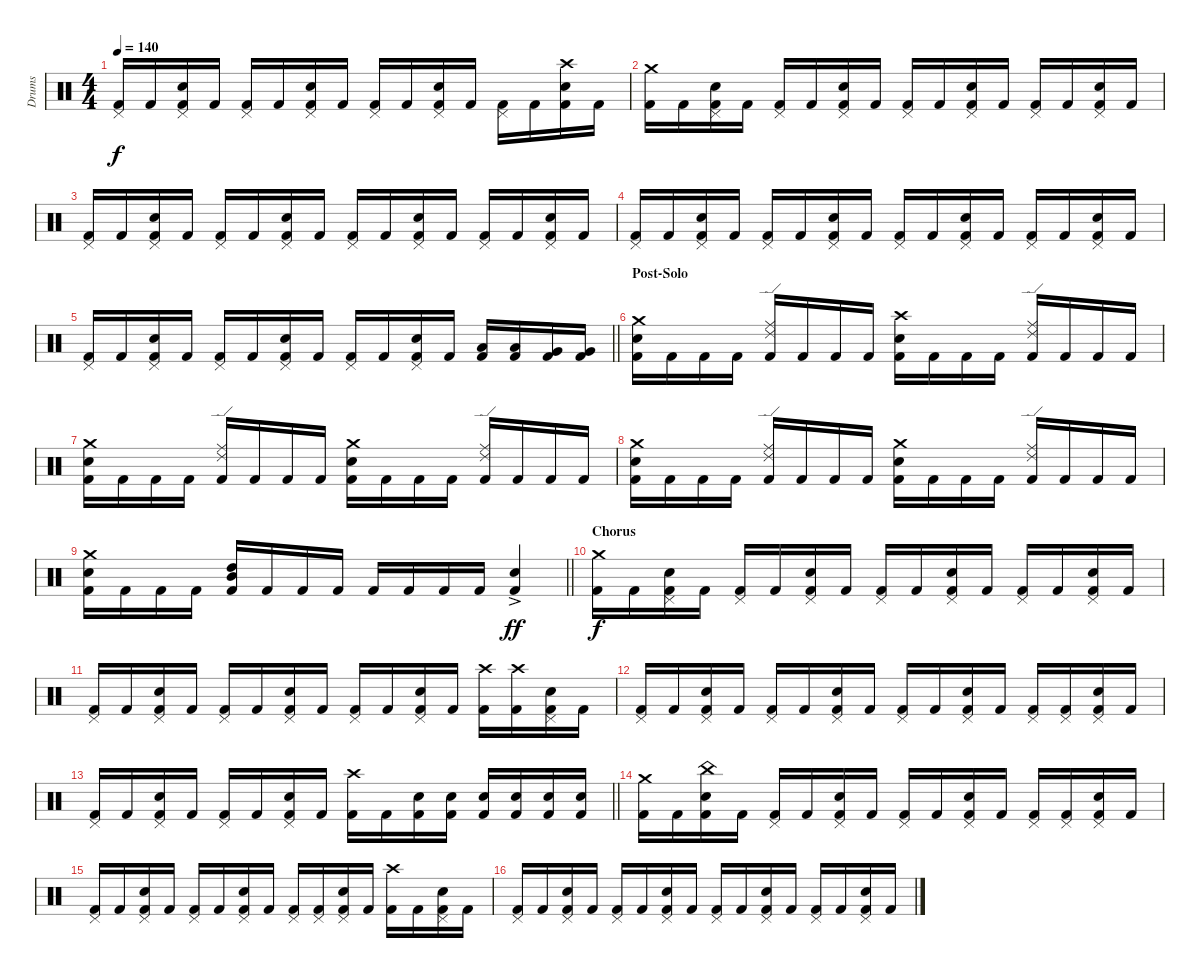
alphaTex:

\track ("Drums" "Drums") {instrument percussion}
\staff {score}
\articulation defaults
\ts (4 4)
\tempo 140
\clef neutral
\ks c
("Kick (hit) 2" "Pedal Hi-Hat (hit)").16{dy f} "Kick (hit) 2".16 ("Kick (hit) 2" "Snare (hit) 2" "Pedal Hi-Hat (hit)").16 "Kick (hit) 2".16 ("Kick (hit) 2" "Pedal Hi-Hat (hit)").16 "Kick (hit) 2".16 ("Kick (hit) 2" "Snare (hit) 2" "Pedal Hi-Hat (hit)").16 "Kick (hit) 2".16 ("Kick (hit) 2" "Pedal Hi-Hat (hit)").16 "Kick (hit) 2".16 ("Kick (hit) 2" "Snare (hit) 2" "Pedal Hi-Hat (hit)").16 "Kick (hit) 2".16 ("Kick (hit) 2" "Pedal Hi-Hat (hit)").16 "Kick (hit) 2".16 ("Kick (hit) 2" "Snare (hit) 2" "Crash high (hit)").16 "Kick (hit) 2".16 |
("Kick (hit) 2" "Crash medium (hit)").16 "Kick (hit) 2".16 ("Kick (hit) 2" "Snare (hit) 2" "Pedal Hi-Hat (hit)").16 "Kick (hit) 2".16 ("Kick (hit) 2" "Pedal Hi-Hat (hit)").16 "Kick (hit) 2".16 ("Kick (hit) 2" "Snare (hit) 2" "Pedal Hi-Hat (hit)").16 "Kick (hit) 2".16 ("Kick (hit) 2" "Pedal Hi-Hat (hit)").16 "Kick (hit) 2".16 ("Kick (hit) 2" "Snare (hit) 2" "Pedal Hi-Hat (hit)").16 "Kick (hit) 2".16 ("Kick (hit) 2" "Pedal Hi-Hat (hit)").16 "Kick (hit) 2".16 ("Kick (hit) 2" "Snare (hit) 2" "Pedal Hi-Hat (hit)").16 "Kick (hit) 2".16 |
("Kick (hit) 2" "Pedal Hi-Hat (hit)").16 "Kick (hit) 2".16 ("Kick (hit) 2" "Snare (hit) 2" "Pedal Hi-Hat (hit)").16 "Kick (hit) 2".16 ("Kick (hit) 2" "Pedal Hi-Hat (hit)").16 "Kick (hit) 2".16 ("Kick (hit) 2" "Snare (hit) 2" "Pedal Hi-Hat (hit)").16 "Kick (hit) 2".16 ("Kick (hit) 2" "Pedal Hi-Hat (hit)").16 "Kick (hit) 2".16 ("Kick (hit) 2" "Snare (hit) 2" "Pedal Hi-Hat (hit)").16 "Kick (hit) 2".16 ("Kick (hit) 2" "Pedal Hi-Hat (hit)").16 "Kick (hit) 2".16 ("Kick (hit) 2" "Snare (hit) 2" "Pedal Hi-Hat (hit)").16 "Kick (hit) 2".16 |
("Kick (hit) 2" "Pedal Hi-Hat (hit)").16 "Kick (hit) 2".16 ("Kick (hit) 2" "Snare (hit) 2" "Pedal Hi-Hat (hit)").16 "Kick (hit) 2".16 ("Kick (hit) 2" "Pedal Hi-Hat (hit)").16 "Kick (hit) 2".16 ("Kick (hit) 2" "Snare (hit) 2" "Pedal Hi-Hat (hit)").16 "Kick (hit) 2".16 ("Kick (hit) 2" "Pedal Hi-Hat (hit)").16 "Kick (hit) 2".16 ("Kick (hit) 2" "Snare (hit) 2" "Pedal Hi-Hat (hit)").16 "Kick (hit) 2".16 ("Kick (hit) 2" "Pedal Hi-Hat (hit)").16 "Kick (hit) 2".16 ("Kick (hit) 2" "Snare (hit) 2" "Pedal Hi-Hat (hit)").16 "Kick (hit) 2".16 |
\barLineRight lightlight
("Kick (hit) 2" "Pedal Hi-Hat (hit)").16 "Kick (hit) 2".16 ("Kick (hit) 2" "Snare (hit) 2" "Pedal Hi-Hat (hit)").16 "Kick (hit) 2".16 ("Kick (hit) 2" "Pedal Hi-Hat (hit)").16 "Kick (hit) 2".16 ("Kick (hit) 2" "Snare (hit) 2" "Pedal Hi-Hat (hit)").16 "Kick (hit) 2".16 ("Kick (hit) 2" "Pedal Hi-Hat (hit)").16 "Kick (hit) 2".16 ("Kick (hit) 2" "Snare (hit) 2" "Pedal Hi-Hat (hit)").16 "Kick (hit) 2".16 ("Kick (hit) 2" "Low Tom (hit)").16 ("Kick (hit) 2" "Low Tom (hit)").16 ("Kick (hit) 2" "Very Low Tom (hit)").16 ("Kick (hit) 2" "Very Low Tom (hit)").16 |
\section ("" "Post-Solo")
("Kick (hit) 2" "Snare (hit) 2" "Crash medium (hit)").16 "Kick (hit) 2".16 "Kick (hit) 2".16 "Kick (hit) 2".16 ("Kick (hit) 2" "Ride (middle)" "Ride (edge) 2").16 "Kick (hit) 2".16 "Kick (hit) 2".16 "Kick (hit) 2".16 ("Kick (hit) 2" "Snare (hit) 2" "Crash high (hit)").16 "Kick (hit) 2".16 "Kick (hit) 2".16 "Kick (hit) 2".16 ("Kick (hit) 2" "Ride (middle)" "Ride (edge) 2").16 "Kick (hit) 2".16 "Kick (hit) 2".16 "Kick (hit) 2".16 |
("Kick (hit) 2" "Snare (hit) 2" "Crash medium (hit)").16 "Kick (hit) 2".16 "Kick (hit) 2".16 "Kick (hit) 2".16 ("Kick (hit) 2" "Ride (middle)" "Ride (edge) 2").16 "Kick (hit) 2".16 "Kick (hit) 2".16 "Kick (hit) 2".16 ("Kick (hit) 2" "Snare (hit) 2" "Crash medium (hit)").16 "Kick (hit) 2".16 "Kick (hit) 2".16 "Kick (hit) 2".16 ("Kick (hit) 2" "Ride (middle)" "Ride (edge) 2").16 "Kick (hit) 2".16 "Kick (hit) 2".16 "Kick (hit) 2".16 |
("Kick (hit) 2" "Snare (hit) 2" "Crash medium (hit)").16 "Kick (hit) 2".16 "Kick (hit) 2".16 "Kick (hit) 2".16 ("Kick (hit) 2" "Ride (middle)" "Ride (edge) 2").16 "Kick (hit) 2".16 "Kick (hit) 2".16 "Kick (hit) 2".16 ("Kick (hit) 2" "Snare (hit) 2" "Crash medium (hit)").16 "Kick (hit) 2".16 "Kick (hit) 2".16 "Kick (hit) 2".16 ("Kick (hit) 2" "Ride (middle)" "Ride (edge) 2").16 "Kick (hit) 2".16 "Kick (hit) 2".16 "Kick (hit) 2".16 |
\barLineRight lightlight
("Kick (hit) 2" "Snare (hit) 2" "Crash medium (hit)").16 "Kick (hit) 2".16 "Kick (hit) 2".16 "Kick (hit) 2".16 ("Kick (hit) 2" "High Tom (hit)" "Mid Tom (hit)").16 "Kick (hit) 2".16 "Kick (hit) 2".16 "Kick (hit) 2".16 "Kick (hit) 2".16 "Kick (hit) 2".16 "Kick (hit) 2".16 "Kick (hit) 2".16 ("Kick (hit) 2" "Snare (hit) 2"{ac}).4{dy ff} |
\section ("" "Chorus")
("Kick (hit) 2" "Crash medium (hit)").16{dy f} "Kick (hit) 2".16 ("Kick (hit) 2" "Snare (hit) 2" "Pedal Hi-Hat (hit)").16 "Kick (hit) 2".16 ("Kick (hit) 2" "Pedal Hi-Hat (hit)").16 "Kick (hit) 2".16 ("Kick (hit) 2" "Snare (hit) 2" "Pedal Hi-Hat (hit)").16 "Kick (hit) 2".16 ("Kick (hit) 2" "Pedal Hi-Hat (hit)").16 "Kick (hit) 2".16 ("Kick (hit) 2" "Snare (hit) 2" "Pedal Hi-Hat (hit)").16 "Kick (hit) 2".16 ("Kick (hit) 2" "Pedal Hi-Hat (hit)").16 "Kick (hit) 2".16 ("Kick (hit) 2" "Snare (hit) 2" "Pedal Hi-Hat (hit)").16 "Kick (hit) 2".16 |
("Kick (hit) 2" "Pedal Hi-Hat (hit)").16 "Kick (hit) 2".16 ("Kick (hit) 2" "Snare (hit) 2" "Pedal Hi-Hat (hit)").16 "Kick (hit) 2".16 ("Kick (hit) 2" "Pedal Hi-Hat (hit)").16 "Kick (hit) 2".16 ("Kick (hit) 2" "Snare (hit) 2" "Pedal Hi-Hat (hit)").16 "Kick (hit) 2".16 ("Kick (hit) 2" "Pedal Hi-Hat (hit)").16 "Kick (hit) 2".16 ("Kick (hit) 2" "Snare (hit) 2" "Pedal Hi-Hat (hit)").16 "Kick (hit) 2".16 ("Kick (hit) 2" "Crash high (hit)").16 ("Kick (hit) 2" "Crash high (hit)").16 ("Kick (hit) 2" "Snare (hit) 2" "Pedal Hi-Hat (hit)").16 "Kick (hit) 2".16 |
("Kick (hit) 2" "Pedal Hi-Hat (hit)").16 "Kick (hit) 2".16 ("Kick (hit) 2" "Snare (hit) 2" "Pedal Hi-Hat (hit)").16 "Kick (hit) 2".16 ("Kick (hit) 2" "Pedal Hi-Hat (hit)").16 "Kick (hit) 2".16 ("Kick (hit) 2" "Snare (hit) 2" "Pedal Hi-Hat (hit)").16 "Kick (hit) 2".16 ("Kick (hit) 2" "Pedal Hi-Hat (hit)").16 "Kick (hit) 2".16 ("Kick (hit) 2" "Snare (hit) 2" "Pedal Hi-Hat (hit)").16 "Kick (hit) 2".16 ("Kick (hit) 2" "Pedal Hi-Hat (hit)").16 ("Kick (hit) 2" "Pedal Hi-Hat (hit)").16 ("Kick (hit) 2" "Snare (hit) 2" "Pedal Hi-Hat (hit)").16 "Kick (hit) 2".16 |
\barLineRight lightlight
("Kick (hit) 2" "Pedal Hi-Hat (hit)").16 "Kick (hit) 2".16 ("Kick (hit) 2" "Snare (hit) 2" "Pedal Hi-Hat (hit)").16 "Kick (hit) 2".16 ("Kick (hit) 2" "Pedal Hi-Hat (hit)").16 "Kick (hit) 2".16 ("Kick (hit) 2" "Snare (hit) 2" "Pedal Hi-Hat (hit)").16 "Kick (hit) 2".16 ("Kick (hit) 2" "Crash high (hit)").16 "Kick (hit) 2".16 ("Kick (hit) 2" "Snare (hit) 2").16 ("Kick (hit) 2" "Snare (hit) 2").16 ("Kick (hit) 2" "Snare (hit) 2").16 ("Kick (hit) 2" "Snare (hit) 2").16 ("Kick (hit) 2" "Snare (hit) 2").16 ("Kick (hit) 2" "Snare (hit) 2").16 |
\section ("" "")
("Kick (hit) 2" "Crash medium (hit)").16 "Kick (hit) 2".16 ("Kick (hit) 2" "Snare (hit) 2" "China (hit)").16 "Kick (hit) 2".16 ("Kick (hit) 2" "Pedal Hi-Hat (hit)").16 "Kick (hit) 2".16 ("Kick (hit) 2" "Snare (hit) 2" "Pedal Hi-Hat (hit)").16 "Kick (hit) 2".16 ("Kick (hit) 2" "Pedal Hi-Hat (hit)").16 "Kick (hit) 2".16 ("Kick (hit) 2" "Snare (hit) 2" "Pedal Hi-Hat (hit)").16 "Kick (hit) 2".16 ("Kick (hit) 2" "Pedal Hi-Hat (hit)").16 ("Kick (hit) 2" "Pedal Hi-Hat (hit)").16 ("Kick (hit) 2" "Snare (hit) 2" "Pedal Hi-Hat (hit)").16 "Kick (hit) 2".16 |
("Kick (hit) 2" "Pedal Hi-Hat (hit)").16 "Kick (hit) 2".16 ("Kick (hit) 2" "Snare (hit) 2" "Pedal Hi-Hat (hit)").16 "Kick (hit) 2".16 ("Kick (hit) 2" "Pedal Hi-Hat (hit)").16 "Kick (hit) 2".16 ("Kick (hit) 2" "Snare (hit) 2" "Pedal Hi-Hat (hit)").16 "Kick (hit) 2".16 ("Kick (hit) 2" "Pedal Hi-Hat (hit)").16 ("Kick (hit) 2" "Pedal Hi-Hat (hit)").16 ("Kick (hit) 2" "Snare (hit) 2" "Pedal Hi-Hat (hit)").16 "Kick (hit) 2".16 ("Kick (hit) 2" "Crash high (hit)").16 "Kick (hit) 2".16 ("Kick (hit) 2" "Snare (hit) 2" "Pedal Hi-Hat (hit)").16 "Kick (hit) 2".16 |
("Kick (hit) 2" "Pedal Hi-Hat (hit)").16 "Kick (hit) 2".16 ("Kick (hit) 2" "Snare (hit) 2" "Pedal Hi-Hat (hit)").16 "Kick (hit) 2".16 ("Kick (hit) 2" "Pedal Hi-Hat (hit)").16 "Kick (hit) 2".16 ("Kick (hit) 2" "Snare (hit) 2" "Pedal Hi-Hat (hit)").16 "Kick (hit) 2".16 ("Kick (hit) 2" "Pedal Hi-Hat (hit)").16 "Kick (hit) 2".16 ("Kick (hit) 2" "Snare (hit) 2" "Pedal Hi-Hat (hit)").16 "Kick (hit) 2".16 ("Kick (hit) 2" "Pedal Hi-Hat (hit)").16 "Kick (hit) 2".16 ("Kick (hit) 2" "Snare (hit) 2" "Pedal Hi-Hat (hit)").16 "Kick (hit) 2".16
